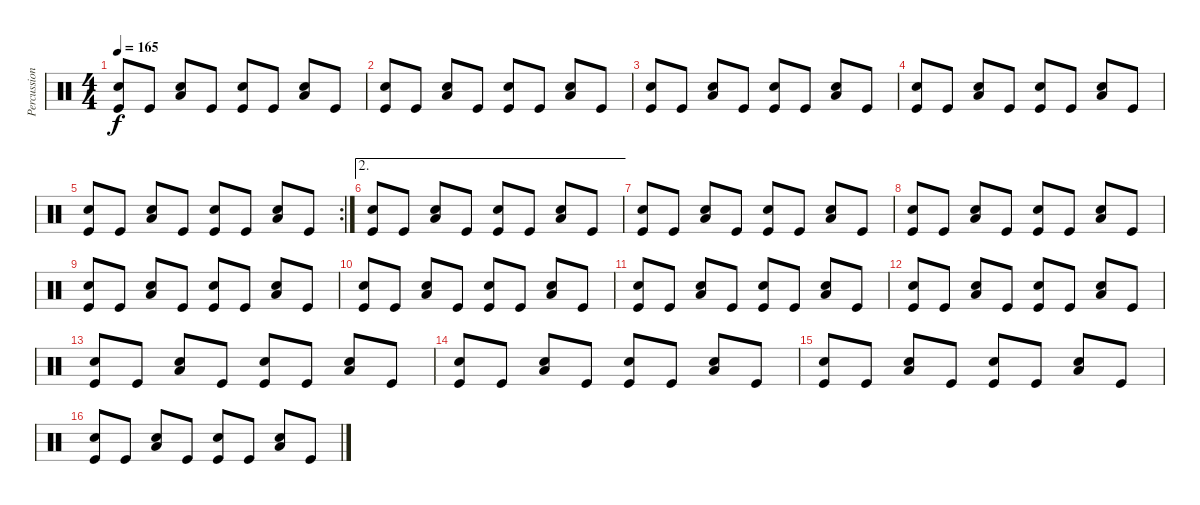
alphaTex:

\track ("Percussions" "Percussion") {instrument percussion}
\staff {score}
\articulation defaults
\ts (4 4)
\tempo 165
\clef neutral
\ks c
("Snare (hit) 2" "Kick (hit)").8{dy f} "Kick (hit)".8 ("Snare (hit) 2" "Low Floor Tom (hit)").8 "Kick (hit)".8 ("Snare (hit) 2" "Kick (hit)").8 "Kick (hit)".8 ("Snare (hit) 2" "Low Floor Tom (hit)").8 "Kick (hit)".8 |
("Snare (hit) 2" "Kick (hit)").8 "Kick (hit)".8 ("Snare (hit) 2" "Low Floor Tom (hit)").8 "Kick (hit)".8 ("Snare (hit) 2" "Kick (hit)").8 "Kick (hit)".8 ("Snare (hit) 2" "Low Floor Tom (hit)").8 "Kick (hit)".8 |
("Snare (hit) 2" "Kick (hit)").8 "Kick (hit)".8 ("Snare (hit) 2" "Low Floor Tom (hit)").8 "Kick (hit)".8 ("Snare (hit) 2" "Kick (hit)").8 "Kick (hit)".8 ("Snare (hit) 2" "Low Floor Tom (hit)").8 "Kick (hit)".8 |
("Snare (hit) 2" "Kick (hit)").8 "Kick (hit)".8 ("Snare (hit) 2" "Low Floor Tom (hit)").8 "Kick (hit)".8 ("Snare (hit) 2" "Kick (hit)").8 "Kick (hit)".8 ("Snare (hit) 2" "Low Floor Tom (hit)").8 "Kick (hit)".8 |
\rc 2
("Snare (hit) 2" "Kick (hit)").8 "Kick (hit)".8 ("Snare (hit) 2" "Low Floor Tom (hit)").8 "Kick (hit)".8 ("Snare (hit) 2" "Kick (hit)").8 "Kick (hit)".8 ("Snare (hit) 2" "Low Floor Tom (hit)").8 "Kick (hit)".8 |
\ae 2
("Snare (hit) 2" "Kick (hit)").8 "Kick (hit)".8 ("Snare (hit) 2" "Low Floor Tom (hit)").8 "Kick (hit)".8 ("Snare (hit) 2" "Kick (hit)").8 "Kick (hit)".8 ("Snare (hit) 2" "Low Floor Tom (hit)").8 "Kick (hit)".8 |
("Snare (hit) 2" "Kick (hit)").8 "Kick (hit)".8 ("Snare (hit) 2" "Low Floor Tom (hit)").8 "Kick (hit)".8 ("Snare (hit) 2" "Kick (hit)").8 "Kick (hit)".8 ("Snare (hit) 2" "Low Floor Tom (hit)").8 "Kick (hit)".8 |
("Snare (hit) 2" "Kick (hit)").8 "Kick (hit)".8 ("Snare (hit) 2" "Low Floor Tom (hit)").8 "Kick (hit)".8 ("Snare (hit) 2" "Kick (hit)").8 "Kick (hit)".8 ("Snare (hit) 2" "Low Floor Tom (hit)").8 "Kick (hit)".8 |
("Snare (hit) 2" "Kick (hit)").8 "Kick (hit)".8 ("Snare (hit) 2" "Low Floor Tom (hit)").8 "Kick (hit)".8 ("Snare (hit) 2" "Kick (hit)").8 "Kick (hit)".8 ("Snare (hit) 2" "Low Floor Tom (hit)").8 "Kick (hit)".8 |
("Snare (hit) 2" "Kick (hit)").8 "Kick (hit)".8 ("Snare (hit) 2" "Low Floor Tom (hit)").8 "Kick (hit)".8 ("Snare (hit) 2" "Kick (hit)").8 "Kick (hit)".8 ("Snare (hit) 2" "Low Floor Tom (hit)").8 "Kick (hit)".8 |
("Snare (hit) 2" "Kick (hit)").8 "Kick (hit)".8 ("Snare (hit) 2" "Low Floor Tom (hit)").8 "Kick (hit)".8 ("Snare (hit) 2" "Kick (hit)").8 "Kick (hit)".8 ("Snare (hit) 2" "Low Floor Tom (hit)").8 "Kick (hit)".8 |
("Snare (hit) 2" "Kick (hit)").8 "Kick (hit)".8 ("Snare (hit) 2" "Low Floor Tom (hit)").8 "Kick (hit)".8 ("Snare (hit) 2" "Kick (hit)").8 "Kick (hit)".8 ("Snare (hit) 2" "Low Floor Tom (hit)").8 "Kick (hit)".8 |
("Snare (hit) 2" "Kick (hit)").8 "Kick (hit)".8 ("Snare (hit) 2" "Low Floor Tom (hit)").8 "Kick (hit)".8 ("Snare (hit) 2" "Kick (hit)").8 "Kick (hit)".8 ("Snare (hit) 2" "Low Floor Tom (hit)").8 "Kick (hit)".8 |
("Snare (hit) 2" "Kick (hit)").8 "Kick (hit)".8 ("Snare (hit) 2" "Low Floor Tom (hit)").8 "Kick (hit)".8 ("Snare (hit) 2" "Kick (hit)").8 "Kick (hit)".8 ("Snare (hit) 2" "Low Floor Tom (hit)").8 "Kick (hit)".8 |
("Snare (hit) 2" "Kick (hit)").8 "Kick (hit)".8 ("Snare (hit) 2" "Low Floor Tom (hit)").8 "Kick (hit)".8 ("Snare (hit) 2" "Kick (hit)").8 "Kick (hit)".8 ("Snare (hit) 2" "Low Floor Tom (hit)").8 "Kick (hit)".8 |
("Snare (hit) 2" "Kick (hit)").8 "Kick (hit)".8 ("Snare (hit) 2" "Low Floor Tom (hit)").8 "Kick (hit)".8 ("Snare (hit) 2" "Kick (hit)").8 "Kick (hit)".8 ("Snare (hit) 2" "Low Floor Tom (hit)").8 "Kick (hit)".8
